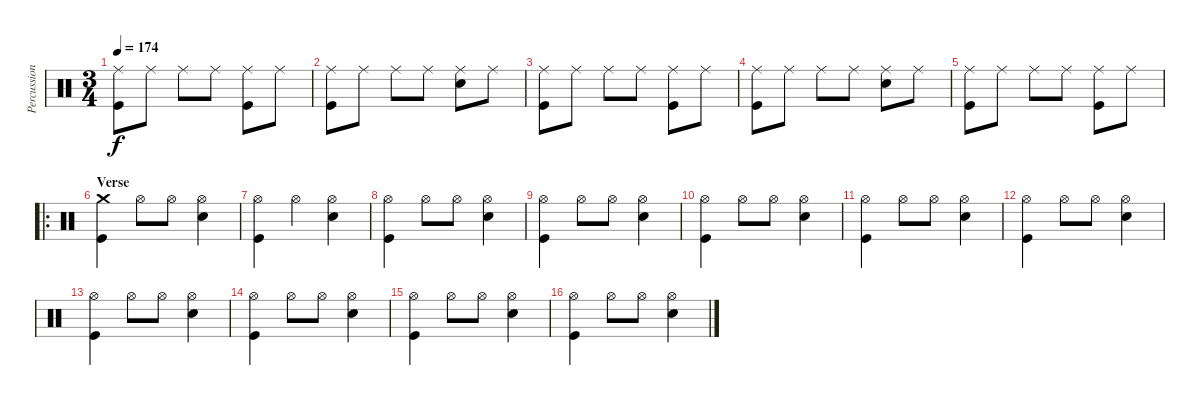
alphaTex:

\track ("Percussion" "Percussion") {instrument percussion}
\staff {score}
\articulation defaults
\ts (3 4)
\tempo 174
\clef neutral
\ks c
("Ride (middle)" "Kick (hit)").8{dy f} "Ride (middle)".8 "Ride (middle)".8 "Ride (middle)".8 ("Ride (middle)" "Kick (hit)").8 "Ride (middle)".8 |
("Ride (middle)" "Kick (hit)").8 "Ride (middle)".8 "Ride (middle)".8 "Ride (middle)".8 ("Ride (middle)" "Electric Snare (hit)").8 "Ride (middle)".8 |
("Ride (middle)" "Kick (hit)").8 "Ride (middle)".8 "Ride (middle)".8 "Ride (middle)".8 ("Ride (middle)" "Kick (hit)").8 "Ride (middle)".8 |
("Ride (middle)" "Kick (hit)").8 "Ride (middle)".8 "Ride (middle)".8 "Ride (middle)".8 ("Ride (middle)" "Electric Snare (hit)").8 "Ride (middle)".8 |
("Ride (middle)" "Kick (hit)").8 "Ride (middle)".8 "Ride (middle)".8 "Ride (middle)".8 ("Ride (middle)" "Kick (hit)").8 "Ride (middle)".8 |
\ro
\section ("" "Verse")
("Crash medium (hit)" "Kick (hit)").4 "Hi-Hat (open)".8 "Hi-Hat (open)".8 ("Hi-Hat (open)" "Electric Snare (hit)").4 |
("Hi-Hat (open)" "Kick (hit)").4 "Hi-Hat (open)".4 ("Hi-Hat (open)" "Electric Snare (hit)").4 |
("Hi-Hat (open)" "Kick (hit)").4 "Hi-Hat (open)".8 "Hi-Hat (open)".8 ("Hi-Hat (open)" "Electric Snare (hit)").4 |
("Hi-Hat (open)" "Kick (hit)").4 "Hi-Hat (open)".8 "Hi-Hat (open)".8 ("Hi-Hat (open)" "Electric Snare (hit)").4 |
("Hi-Hat (open)" "Kick (hit)").4 "Hi-Hat (open)".8 "Hi-Hat (open)".8 ("Hi-Hat (open)" "Electric Snare (hit)").4 |
("Hi-Hat (open)" "Kick (hit)").4 "Hi-Hat (open)".8 "Hi-Hat (open)".8 ("Hi-Hat (open)" "Electric Snare (hit)").4 |
("Hi-Hat (open)" "Kick (hit)").4 "Hi-Hat (open)".8 "Hi-Hat (open)".8 ("Hi-Hat (open)" "Electric Snare (hit)").4 |
("Hi-Hat (open)" "Kick (hit)").4 "Hi-Hat (open)".8 "Hi-Hat (open)".8 ("Hi-Hat (open)" "Electric Snare (hit)").4 |
("Hi-Hat (open)" "Kick (hit)").4 "Hi-Hat (open)".8 "Hi-Hat (open)".8 ("Hi-Hat (open)" "Electric Snare (hit)").4 |
("Hi-Hat (open)" "Kick (hit)").4 "Hi-Hat (open)".8 "Hi-Hat (open)".8 ("Hi-Hat (open)" "Electric Snare (hit)").4 |
("Hi-Hat (open)" "Kick (hit)").4 "Hi-Hat (open)".8 "Hi-Hat (open)".8 ("Hi-Hat (open)" "Electric Snare (hit)").4
